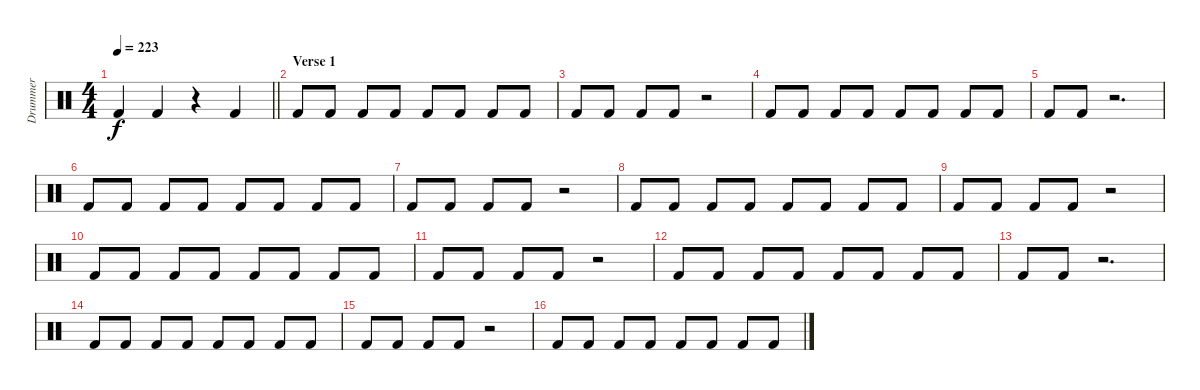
\track ("Drummer" "Drummer") {instrument percussion}
\staff {score}
\articulation defaults
\ts (4 4)
\tempo 223
\clef neutral
\barLineRight lightlight
\ks c "Kick (hit) 2".4{dy f} "Kick (hit) 2".4
r.4 "Kick (hit) 2".4 |
\section ("" "Verse 1")
"Kick (hit) 2".8 "Kick (hit) 2".8 "Kick (hit) 2".8 "Kick (hit) 2".8 "Kick (hit) 2".8 "Kick (hit) 2".8 "Kick (hit) 2".8 "Kick (hit) 2".8 |
"Kick (hit) 2".8 "Kick (hit) 2".8 "Kick (hit) 2".8 "Kick (hit) 2".8 r.2 |
"Kick (hit) 2".8 "Kick (hit) 2".8 "Kick (hit) 2".8 "Kick (hit) 2".8 "Kick (hit) 2".8 "Kick (hit) 2".8 "Kick (hit) 2".8 "Kick (hit) 2".8 |
"Kick (hit) 2".8 "Kick (hit) 2".8 r.2{d} |
"Kick (hit) 2".8 "Kick (hit) 2".8 "Kick (hit) 2".8 "Kick (hit) 2".8 "Kick (hit) 2".8 "Kick (hit) 2".8 "Kick (hit) 2".8 "Kick (hit) 2".8 |
"Kick (hit) 2".8 "Kick (hit) 2".8 "Kick (hit) 2".8 "Kick (hit) 2".8 r.2 |
"Kick (hit) 2".8 "Kick (hit) 2".8 "Kick (hit) 2".8 "Kick (hit) 2".8 "Kick (hit) 2".8 "Kick (hit) 2".8 "Kick (hit) 2".8 "Kick (hit) 2".8 |
"Kick (hit) 2".8 "Kick (hit) 2".8 "Kick (hit) 2".8 "Kick (hit) 2".8 r.2 |
"Kick (hit) 2".8 "Kick (hit) 2".8 "Kick (hit) 2".8 "Kick (hit) 2".8 "Kick (hit) 2".8 "Kick (hit) 2".8 "Kick (hit) 2".8 "Kick (hit) 2".8 |
"Kick (hit) 2".8 "Kick (hit) 2".8 "Kick (hit) 2".8 "Kick (hit) 2".8 r.2 |
"Kick (hit) 2".8 "Kick (hit) 2".8 "Kick (hit) 2".8 "Kick (hit) 2".8 "Kick (hit) 2".8 "Kick (hit) 2".8 "Kick (hit) 2".8 "Kick (hit) 2".8 |
"Kick (hit) 2".8 "Kick (hit) 2".8 r.2{d} |
"Kick (hit) 2".8 "Kick (hit) 2".8 "Kick (hit) 2".8 "Kick (hit) 2".8 "Kick (hit) 2".8 "Kick (hit) 2".8 "Kick (hit) 2".8 "Kick (hit) 2".8 |
"Kick (hit) 2".8 "Kick (hit) 2".8 "Kick (hit) 2".8 "Kick (hit) 2".8 r.2 |
"Kick (hit) 2".8 "Kick (hit) 2".8 "Kick (hit) 2".8 "Kick (hit) 2".8 "Kick (hit) 2".8 "Kick (hit) 2".8 "Kick (hit) 2".8 "Kick (hit) 2".8
